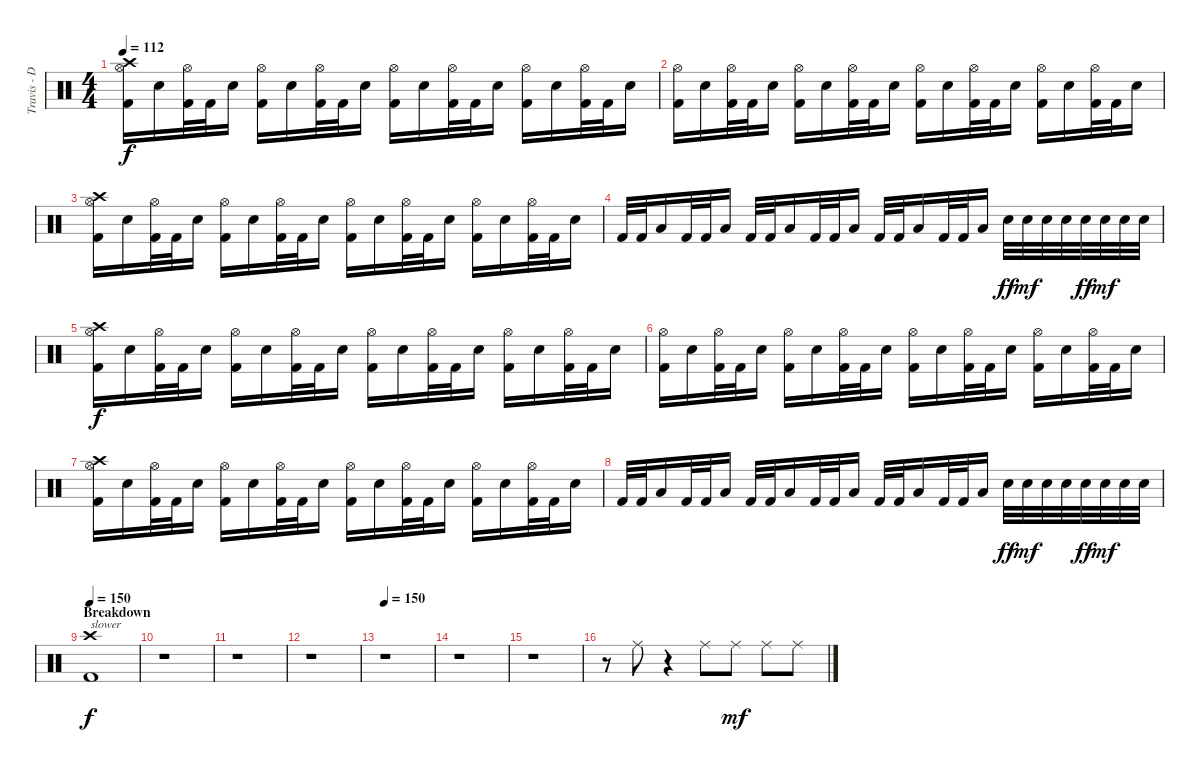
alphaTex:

\track ("Travis - Drums" "Travis - D") {instrument percussion}
\staff {score}
\articulation defaults
\ts (4 4)
\tempo 112
\clef neutral
\ks c
("Crash high (hit)" "Hi-Hat (open)" "Kick (hit) 2").16{dy f} "Electric Snare (hit)".16 ("Hi-Hat (open)" "Kick (hit) 2").32 "Kick (hit) 2".32 "Electric Snare (hit)".16 ("Hi-Hat (open)" "Kick (hit) 2").16 "Electric Snare (hit)".16 ("Hi-Hat (open)" "Kick (hit) 2").32 "Kick (hit) 2".32 "Electric Snare (hit)".16 ("Hi-Hat (open)" "Kick (hit) 2").16 "Electric Snare (hit)".16 ("Hi-Hat (open)" "Kick (hit) 2").32 "Kick (hit) 2".32 "Electric Snare (hit)".16 ("Hi-Hat (open)" "Kick (hit) 2").16 "Electric Snare (hit)".16 ("Hi-Hat (open)" "Kick (hit) 2").32 "Kick (hit) 2".32 "Electric Snare (hit)".16 |
("Hi-Hat (open)" "Kick (hit) 2").16 "Electric Snare (hit)".16 ("Hi-Hat (open)" "Kick (hit) 2").32 "Kick (hit) 2".32 "Electric Snare (hit)".16 ("Hi-Hat (open)" "Kick (hit) 2").16 "Electric Snare (hit)".16 ("Hi-Hat (open)" "Kick (hit) 2").32 "Kick (hit) 2".32 "Electric Snare (hit)".16 ("Hi-Hat (open)" "Kick (hit) 2").16 "Electric Snare (hit)".16 ("Hi-Hat (open)" "Kick (hit) 2").32 "Kick (hit) 2".32 "Electric Snare (hit)".16 ("Hi-Hat (open)" "Kick (hit) 2").16 "Electric Snare (hit)".16 ("Hi-Hat (open)" "Kick (hit) 2").32 "Kick (hit) 2".32 "Electric Snare (hit)".16 |
("Crash high (hit)" "Hi-Hat (open)" "Kick (hit) 2").16 "Electric Snare (hit)".16 ("Hi-Hat (open)" "Kick (hit) 2").32 "Kick (hit) 2".32 "Electric Snare (hit)".16 ("Hi-Hat (open)" "Kick (hit) 2").16 "Electric Snare (hit)".16 ("Hi-Hat (open)" "Kick (hit) 2").32 "Kick (hit) 2".32 "Electric Snare (hit)".16 ("Hi-Hat (open)" "Kick (hit) 2").16 "Electric Snare (hit)".16 ("Hi-Hat (open)" "Kick (hit) 2").32 "Kick (hit) 2".32 "Electric Snare (hit)".16 ("Hi-Hat (open)" "Kick (hit) 2").16 "Electric Snare (hit)".16 ("Hi-Hat (open)" "Kick (hit) 2").32 "Kick (hit) 2".32 "Electric Snare (hit)".16 |
"Kick (hit) 2".32 "Kick (hit) 2".32 "Low Tom (hit)".16 "Kick (hit) 2".32 "Kick (hit) 2".32 "Low Tom (hit)".16 "Kick (hit) 2".32 "Kick (hit) 2".32 "Low Tom (hit)".16 "Kick (hit) 2".32 "Kick (hit) 2".32 "Low Tom (hit)".16 "Kick (hit) 2".32 "Kick (hit) 2".32 "Low Tom (hit)".16 "Kick (hit) 2".32 "Kick (hit) 2".32 "Low Tom (hit)".16 "Electric Snare (hit)".32{dy ff} "Electric Snare (hit)".32{dy mf} "Electric Snare (hit)".32 "Electric Snare (hit)".32 "Electric Snare (hit)".32{dy ff} "Electric Snare (hit)".32{dy mf} "Electric Snare (hit)".32 "Electric Snare (hit)".32 |
("Crash high (hit)" "Hi-Hat (open)" "Kick (hit) 2").16{dy f} "Electric Snare (hit)".16 ("Hi-Hat (open)" "Kick (hit) 2").32 "Kick (hit) 2".32 "Electric Snare (hit)".16 ("Hi-Hat (open)" "Kick (hit) 2").16 "Electric Snare (hit)".16 ("Hi-Hat (open)" "Kick (hit) 2").32 "Kick (hit) 2".32 "Electric Snare (hit)".16 ("Hi-Hat (open)" "Kick (hit) 2").16 "Electric Snare (hit)".16 ("Hi-Hat (open)" "Kick (hit) 2").32 "Kick (hit) 2".32 "Electric Snare (hit)".16 ("Hi-Hat (open)" "Kick (hit) 2").16 "Electric Snare (hit)".16 ("Hi-Hat (open)" "Kick (hit) 2").32 "Kick (hit) 2".32 "Electric Snare (hit)".16 |
("Hi-Hat (open)" "Kick (hit) 2").16 "Electric Snare (hit)".16 ("Hi-Hat (open)" "Kick (hit) 2").32 "Kick (hit) 2".32 "Electric Snare (hit)".16 ("Hi-Hat (open)" "Kick (hit) 2").16 "Electric Snare (hit)".16 ("Hi-Hat (open)" "Kick (hit) 2").32 "Kick (hit) 2".32 "Electric Snare (hit)".16 ("Hi-Hat (open)" "Kick (hit) 2").16 "Electric Snare (hit)".16 ("Hi-Hat (open)" "Kick (hit) 2").32 "Kick (hit) 2".32 "Electric Snare (hit)".16 ("Hi-Hat (open)" "Kick (hit) 2").16 "Electric Snare (hit)".16 ("Hi-Hat (open)" "Kick (hit) 2").32 "Kick (hit) 2".32 "Electric Snare (hit)".16 |
("Crash high (hit)" "Hi-Hat (open)" "Kick (hit) 2").16 "Electric Snare (hit)".16 ("Hi-Hat (open)" "Kick (hit) 2").32 "Kick (hit) 2".32 "Electric Snare (hit)".16 ("Hi-Hat (open)" "Kick (hit) 2").16 "Electric Snare (hit)".16 ("Hi-Hat (open)" "Kick (hit) 2").32 "Kick (hit) 2".32 "Electric Snare (hit)".16 ("Hi-Hat (open)" "Kick (hit) 2").16 "Electric Snare (hit)".16 ("Hi-Hat (open)" "Kick (hit) 2").32 "Kick (hit) 2".32 "Electric Snare (hit)".16 ("Hi-Hat (open)" "Kick (hit) 2").16 "Electric Snare (hit)".16 ("Hi-Hat (open)" "Kick (hit) 2").32 "Kick (hit) 2".32 "Electric Snare (hit)".16 |
"Kick (hit) 2".32 "Kick (hit) 2".32 "Low Tom (hit)".16 "Kick (hit) 2".32 "Kick (hit) 2".32 "Low Tom (hit)".16 "Kick (hit) 2".32 "Kick (hit) 2".32 "Low Tom (hit)".16 "Kick (hit) 2".32 "Kick (hit) 2".32 "Low Tom (hit)".16 "Kick (hit) 2".32 "Kick (hit) 2".32 "Low Tom (hit)".16 "Kick (hit) 2".32 "Kick (hit) 2".32 "Low Tom (hit)".16 "Electric Snare (hit)".32{dy ff} "Electric Snare (hit)".32{dy mf} "Electric Snare (hit)".32 "Electric Snare (hit)".32 "Electric Snare (hit)".32{dy ff} "Electric Snare (hit)".32{dy mf} "Electric Snare (hit)".32 "Electric Snare (hit)".32 |
\section ("" "Breakdown")
\tempo 150
("Crash high (hit)" "Kick (hit) 2").1{txt "slower " dy f} |
r.1 |
r.1 |
r.1 |
\tempo 150
r.1 |
r.1 |
r.1 |
r.8 "Ride (middle)".8 r.4 "Ride (middle)".8 "Ride (middle)".8{dy mf} "Ride (middle)".8 "Ride (middle)".8
